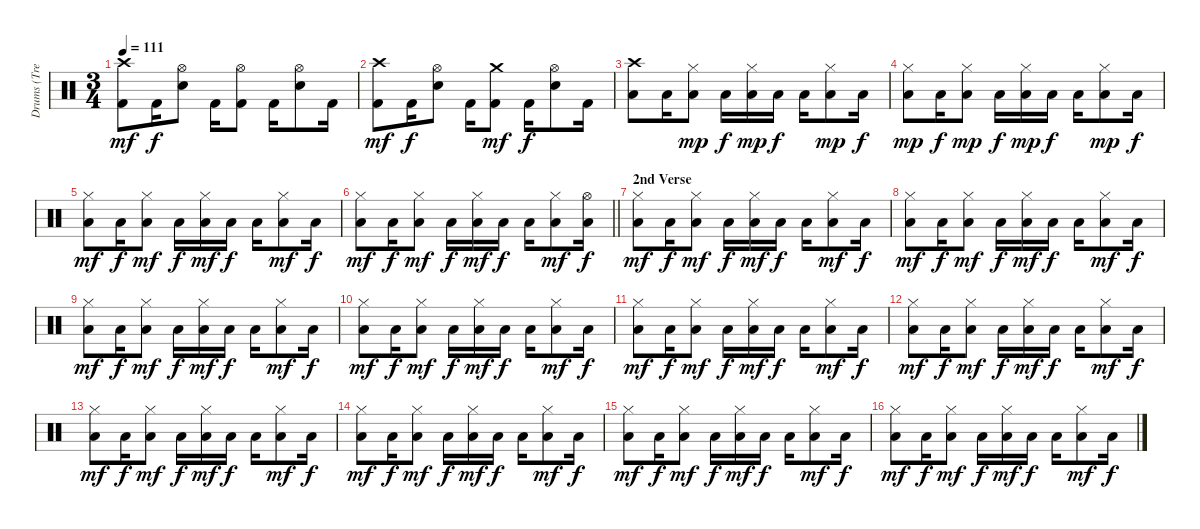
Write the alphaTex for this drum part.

\track ("Drums (Tre Cool)" "Drums (Tre") {instrument percussion}
\staff {score}
\articulation defaults
\ts (3 4)
\tempo 111
\clef neutral
\ks c
("Crash high (hit)" "Kick (hit) 2").8{dy mf} "Kick (hit) 2".16{dy f} ("Hi-Hat (open)" "Electric Snare (hit)").8 "Kick (hit) 2".16 ("Hi-Hat (open)" "Kick (hit) 2").8 "Kick (hit) 2".16 ("Hi-Hat (open)" "Electric Snare (hit)").8 "Kick (hit) 2".16 |
("Crash high (hit)" "Kick (hit) 2").8{dy mf} "Kick (hit) 2".16{dy f} ("Hi-Hat (open)" "Electric Snare (hit)").8 "Kick (hit) 2".16 ("Crash medium (hit)" "Kick (hit) 2").8{dy mf} "Kick (hit) 2".16{dy f} ("Hi-Hat (open)" "Electric Snare (hit)").8 "Kick (hit) 2".16 |
("Crash high (hit)" "Low Floor Tom (hit)").8 "Low Floor Tom (hit)".16 ("Hi-Hat (closed)" "Low Tom (hit)").8{dy mp} "Low Tom (hit)".16{dy f} ("Hi-Hat (closed)" "Low Floor Tom (hit)").16{dy mp} "Low Floor Tom (hit)".16{dy f} "Low Floor Tom (hit)".16 ("Hi-Hat (closed)" "Low Tom (hit)").8{dy mp} "Low Tom (hit)".16{dy f} |
("Hi-Hat (closed)" "Low Floor Tom (hit)").8{dy mp} "Low Floor Tom (hit)".16{dy f} ("Hi-Hat (closed)" "Low Tom (hit)").8{dy mp} "Low Tom (hit)".16{dy f} ("Hi-Hat (closed)" "Low Floor Tom (hit)").16{dy mp} "Low Floor Tom (hit)".16{dy f} "Low Floor Tom (hit)".16 ("Hi-Hat (closed)" "Low Tom (hit)").8{dy mp} "Low Tom (hit)".16{dy f} |
("Hi-Hat (closed)" "Low Floor Tom (hit)").8{dy mf} "Low Floor Tom (hit)".16{dy f} ("Hi-Hat (closed)" "Low Tom (hit)").8{dy mf} "Low Tom (hit)".16{dy f} ("Hi-Hat (closed)" "Low Floor Tom (hit)").16{dy mf} "Low Floor Tom (hit)".16{dy f} "Low Floor Tom (hit)".16 ("Hi-Hat (closed)" "Low Tom (hit)").8{dy mf} "Low Tom (hit)".16{dy f} |
\barLineRight lightlight
("Hi-Hat (closed)" "Low Floor Tom (hit)").8{dy mf} "Low Floor Tom (hit)".16{dy f} ("Hi-Hat (closed)" "Low Tom (hit)").8{dy mf} "Low Tom (hit)".16{dy f} ("Hi-Hat (closed)" "Low Floor Tom (hit)").16{dy mf} "Low Floor Tom (hit)".16{dy f} "Low Floor Tom (hit)".16 ("Hi-Hat (closed)" "Low Tom (hit)").8{dy mf} ("Hi-Hat (open)" "Low Tom (hit)").16{dy f} |
\section ("" "2nd Verse")
("Hi-Hat (closed)" "Low Floor Tom (hit)").8{dy mf} "Low Floor Tom (hit)".16{dy f} ("Hi-Hat (closed)" "Low Tom (hit)").8{dy mf} "Low Tom (hit)".16{dy f} ("Hi-Hat (closed)" "Low Floor Tom (hit)").16{dy mf} "Low Floor Tom (hit)".16{dy f} "Low Floor Tom (hit)".16 ("Hi-Hat (closed)" "Low Tom (hit)").8{dy mf} "Low Tom (hit)".16{dy f} |
("Hi-Hat (closed)" "Low Floor Tom (hit)").8{dy mf} "Low Floor Tom (hit)".16{dy f} ("Hi-Hat (closed)" "Low Tom (hit)").8{dy mf} "Low Tom (hit)".16{dy f} ("Hi-Hat (closed)" "Low Floor Tom (hit)").16{dy mf} "Low Floor Tom (hit)".16{dy f} "Low Floor Tom (hit)".16 ("Hi-Hat (closed)" "Low Tom (hit)").8{dy mf} "Low Tom (hit)".16{dy f} |
("Hi-Hat (closed)" "Low Floor Tom (hit)").8{dy mf} "Low Floor Tom (hit)".16{dy f} ("Hi-Hat (closed)" "Low Tom (hit)").8{dy mf} "Low Tom (hit)".16{dy f} ("Hi-Hat (closed)" "Low Floor Tom (hit)").16{dy mf} "Low Floor Tom (hit)".16{dy f} "Low Floor Tom (hit)".16 ("Hi-Hat (closed)" "Low Tom (hit)").8{dy mf} "Low Tom (hit)".16{dy f} |
("Hi-Hat (closed)" "Low Floor Tom (hit)").8{dy mf} "Low Floor Tom (hit)".16{dy f} ("Hi-Hat (closed)" "Low Tom (hit)").8{dy mf} "Low Tom (hit)".16{dy f} ("Hi-Hat (closed)" "Low Floor Tom (hit)").16{dy mf} "Low Floor Tom (hit)".16{dy f} "Low Floor Tom (hit)".16 ("Hi-Hat (closed)" "Low Tom (hit)").8{dy mf} "Low Tom (hit)".16{dy f} |
("Hi-Hat (closed)" "Low Floor Tom (hit)").8{dy mf} "Low Floor Tom (hit)".16{dy f} ("Hi-Hat (closed)" "Low Tom (hit)").8{dy mf} "Low Tom (hit)".16{dy f} ("Hi-Hat (closed)" "Low Floor Tom (hit)").16{dy mf} "Low Floor Tom (hit)".16{dy f} "Low Floor Tom (hit)".16 ("Hi-Hat (closed)" "Low Tom (hit)").8{dy mf} "Low Tom (hit)".16{dy f} |
("Hi-Hat (closed)" "Low Floor Tom (hit)").8{dy mf} "Low Floor Tom (hit)".16{dy f} ("Hi-Hat (closed)" "Low Tom (hit)").8{dy mf} "Low Tom (hit)".16{dy f} ("Hi-Hat (closed)" "Low Floor Tom (hit)").16{dy mf} "Low Floor Tom (hit)".16{dy f} "Low Floor Tom (hit)".16 ("Hi-Hat (closed)" "Low Tom (hit)").8{dy mf} "Low Tom (hit)".16{dy f} |
("Hi-Hat (closed)" "Low Floor Tom (hit)").8{dy mf} "Low Floor Tom (hit)".16{dy f} ("Hi-Hat (closed)" "Low Tom (hit)").8{dy mf} "Low Tom (hit)".16{dy f} ("Hi-Hat (closed)" "Low Floor Tom (hit)").16{dy mf} "Low Floor Tom (hit)".16{dy f} "Low Floor Tom (hit)".16 ("Hi-Hat (closed)" "Low Tom (hit)").8{dy mf} "Low Tom (hit)".16{dy f} |
("Hi-Hat (closed)" "Low Floor Tom (hit)").8{dy mf} "Low Floor Tom (hit)".16{dy f} ("Hi-Hat (closed)" "Low Tom (hit)").8{dy mf} "Low Tom (hit)".16{dy f} ("Hi-Hat (closed)" "Low Floor Tom (hit)").16{dy mf} "Low Floor Tom (hit)".16{dy f} "Low Floor Tom (hit)".16 ("Hi-Hat (closed)" "Low Tom (hit)").8{dy mf} "Low Tom (hit)".16{dy f} |
("Hi-Hat (closed)" "Low Floor Tom (hit)").8{dy mf} "Low Floor Tom (hit)".16{dy f} ("Hi-Hat (closed)" "Low Tom (hit)").8{dy mf} "Low Tom (hit)".16{dy f} ("Hi-Hat (closed)" "Low Floor Tom (hit)").16{dy mf} "Low Floor Tom (hit)".16{dy f} "Low Floor Tom (hit)".16 ("Hi-Hat (closed)" "Low Tom (hit)").8{dy mf} "Low Tom (hit)".16{dy f} |
("Hi-Hat (closed)" "Low Floor Tom (hit)").8{dy mf} "Low Floor Tom (hit)".16{dy f} ("Hi-Hat (closed)" "Low Tom (hit)").8{dy mf} "Low Tom (hit)".16{dy f} ("Hi-Hat (closed)" "Low Floor Tom (hit)").16{dy mf} "Low Floor Tom (hit)".16{dy f} "Low Floor Tom (hit)".16 ("Hi-Hat (closed)" "Low Tom (hit)").8{dy mf} "Low Tom (hit)".16{dy f}
